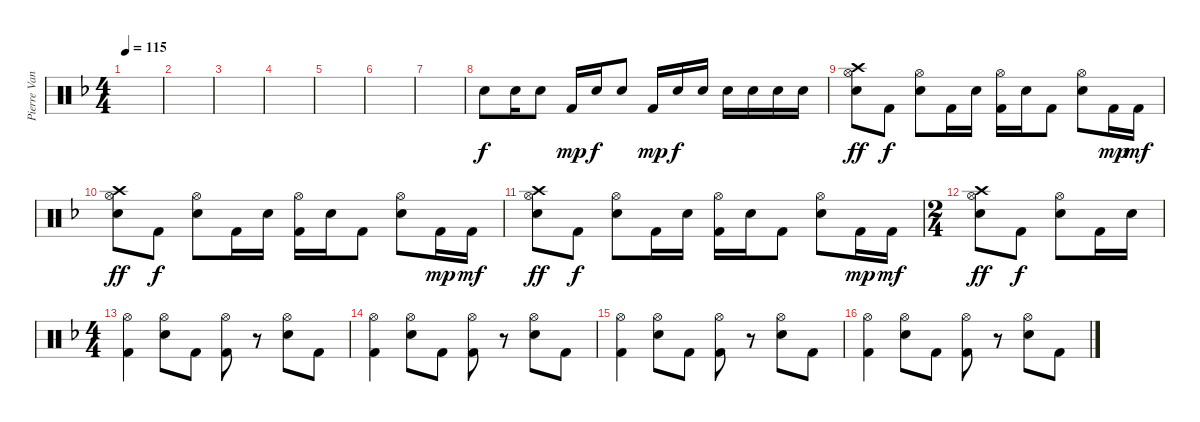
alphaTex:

\track ("Pierre Van Der Linden" "Pierre Van") {instrument percussion}
\staff {score}
\articulation defaults
\ts (4 4)
\tempo 115
\clef neutral
\ks f
|
|
|
|
|
|
|
"Electric Snare (hit)".8 "Electric Snare (hit)".16 "Electric Snare (hit)".8 "Kick (hit) 2".16{dy mp} "Electric Snare (hit)".16{dy f} "Electric Snare (hit)".8 "Kick (hit) 2".16{dy mp} "Electric Snare (hit)".16{dy f} "Electric Snare (hit)".16 "Electric Snare (hit)".16 "Electric Snare (hit)".16 "Electric Snare (hit)".16 "Electric Snare (hit)".16 |
("Hi-Hat (open)" "Crash high (hit)" "Electric Snare (hit)").8{dy ff} "Kick (hit) 2".8{dy f} ("Hi-Hat (open)" "Electric Snare (hit)").8 "Kick (hit) 2".16 "Electric Snare (hit)".16 ("Hi-Hat (open)" "Kick (hit) 2").16 "Electric Snare (hit)".16 "Kick (hit) 2".8 ("Hi-Hat (open)" "Electric Snare (hit)").8 "Kick (hit) 2".16{dy mp} "Kick (hit) 2".16{dy mf} |
("Hi-Hat (open)" "Crash high (hit)" "Electric Snare (hit)").8{dy ff} "Kick (hit) 2".8{dy f} ("Hi-Hat (open)" "Electric Snare (hit)").8 "Kick (hit) 2".16 "Electric Snare (hit)".16 ("Hi-Hat (open)" "Kick (hit) 2").16 "Electric Snare (hit)".16 "Kick (hit) 2".8 ("Hi-Hat (open)" "Electric Snare (hit)").8 "Kick (hit) 2".16{dy mp} "Kick (hit) 2".16{dy mf} |
("Hi-Hat (open)" "Crash high (hit)" "Electric Snare (hit)").8{dy ff} "Kick (hit) 2".8{dy f} ("Hi-Hat (open)" "Electric Snare (hit)").8 "Kick (hit) 2".16 "Electric Snare (hit)".16 ("Hi-Hat (open)" "Kick (hit) 2").16 "Electric Snare (hit)".16 "Kick (hit) 2".8 ("Hi-Hat (open)" "Electric Snare (hit)").8 "Kick (hit) 2".16{dy mp} "Kick (hit) 2".16{dy mf} |
\ts (2 4)
("Hi-Hat (open)" "Crash high (hit)" "Electric Snare (hit)").8{dy ff} "Kick (hit) 2".8{dy f} ("Hi-Hat (open)" "Electric Snare (hit)").8 "Kick (hit) 2".16 "Electric Snare (hit)".16 |
\ts (4 4)
("Hi-Hat (open)" "Kick (hit) 2").4 ("Hi-Hat (open)" "Electric Snare (hit)").8 "Kick (hit) 2".8 ("Hi-Hat (open)" "Kick (hit) 2").8 r.8 ("Hi-Hat (open)" "Electric Snare (hit)").8 "Kick (hit) 2".8 |
("Hi-Hat (open)" "Kick (hit) 2").4 ("Hi-Hat (open)" "Electric Snare (hit)").8 "Kick (hit) 2".8 ("Hi-Hat (open)" "Kick (hit) 2").8 r.8 ("Hi-Hat (open)" "Electric Snare (hit)").8 "Kick (hit) 2".8 |
("Hi-Hat (open)" "Kick (hit) 2").4 ("Hi-Hat (open)" "Electric Snare (hit)").8 "Kick (hit) 2".8 ("Hi-Hat (open)" "Kick (hit) 2").8 r.8 ("Hi-Hat (open)" "Electric Snare (hit)").8 "Kick (hit) 2".8 |
("Hi-Hat (open)" "Kick (hit) 2").4 ("Hi-Hat (open)" "Electric Snare (hit)").8 "Kick (hit) 2".8 ("Hi-Hat (open)" "Kick (hit) 2").8 r.8 ("Hi-Hat (open)" "Electric Snare (hit)").8 "Kick (hit) 2".8
